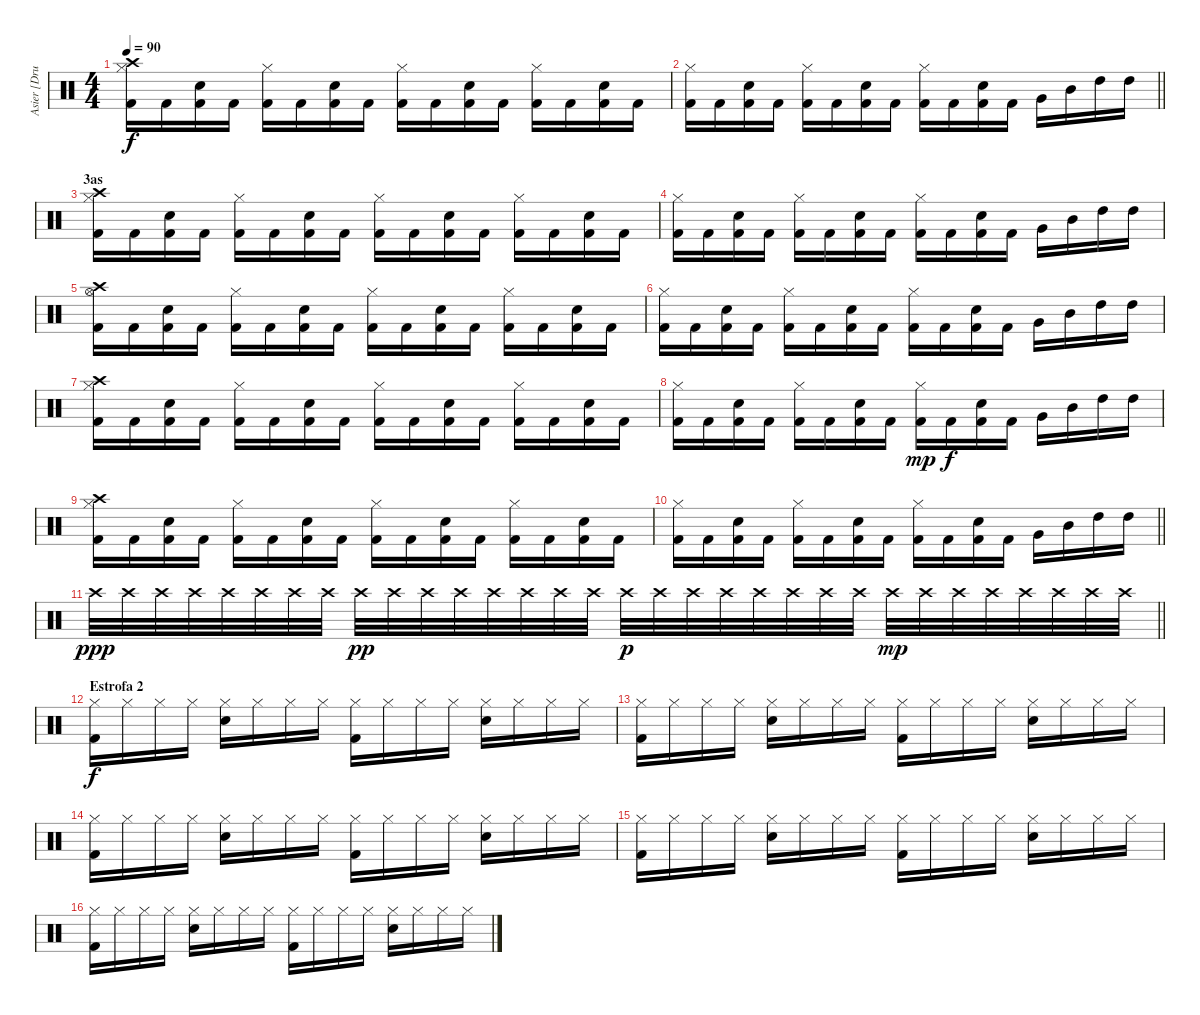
\track ("Asier [Drums]" "Asier [Dru") {instrument percussion}
\staff {score}
\articulation defaults
\ts (4 4)
\tempo 90
\clef neutral
\ks c
("Crash high (hit)" "Hi-Hat (closed)" "Kick (hit) 2").16{dy f} "Kick (hit) 2".16 ("Snare (hit) 2" "Kick (hit) 2").16 "Kick (hit) 2".16 ("Hi-Hat (closed)" "Kick (hit) 2").16 "Kick (hit) 2".16 ("Snare (hit) 2" "Kick (hit) 2").16 "Kick (hit) 2".16 ("Hi-Hat (closed)" "Kick (hit) 2").16 "Kick (hit) 2".16 ("Snare (hit) 2" "Kick (hit) 2").16 "Kick (hit) 2".16 ("Hi-Hat (closed)" "Kick (hit) 2").16 "Kick (hit) 2".16 ("Snare (hit) 2" "Kick (hit) 2").16 "Kick (hit) 2".16 |
\barLineRight lightlight
("Hi-Hat (closed)" "Kick (hit) 2").16 "Kick (hit) 2".16 ("Snare (hit) 2" "Kick (hit) 2").16 "Kick (hit) 2".16 ("Hi-Hat (closed)" "Kick (hit) 2").16 "Kick (hit) 2".16 ("Snare (hit) 2" "Kick (hit) 2").16 "Kick (hit) 2".16 ("Hi-Hat (closed)" "Kick (hit) 2").16 "Kick (hit) 2".16 ("Snare (hit) 2" "Kick (hit) 2").16 "Kick (hit) 2".16 "Very Low Tom (hit)".16 "Mid Tom (hit)".16 "High Tom (hit)".16 "High Tom (hit)".16 |
\section ("" "3as")
("Crash high (hit)" "Hi-Hat (closed)" "Kick (hit) 2").16 "Kick (hit) 2".16 ("Snare (hit) 2" "Kick (hit) 2").16 "Kick (hit) 2".16 ("Hi-Hat (closed)" "Kick (hit) 2").16 "Kick (hit) 2".16 ("Snare (hit) 2" "Kick (hit) 2").16 "Kick (hit) 2".16 ("Hi-Hat (closed)" "Kick (hit) 2").16 "Kick (hit) 2".16 ("Snare (hit) 2" "Kick (hit) 2").16 "Kick (hit) 2".16 ("Hi-Hat (closed)" "Kick (hit) 2").16 "Kick (hit) 2".16 ("Snare (hit) 2" "Kick (hit) 2").16 "Kick (hit) 2".16 |
("Hi-Hat (closed)" "Kick (hit) 2").16 "Kick (hit) 2".16 ("Snare (hit) 2" "Kick (hit) 2").16 "Kick (hit) 2".16 ("Hi-Hat (closed)" "Kick (hit) 2").16 "Kick (hit) 2".16 ("Snare (hit) 2" "Kick (hit) 2").16 "Kick (hit) 2".16 ("Hi-Hat (closed)" "Kick (hit) 2").16 "Kick (hit) 2".16 ("Snare (hit) 2" "Kick (hit) 2").16 "Kick (hit) 2".16 "Very Low Tom (hit)".16 "Mid Tom (hit)".16 "High Tom (hit)".16 "High Tom (hit)".16 |
("Crash high (hit)" "Hi-Hat (open)" "Kick (hit) 2").16 "Kick (hit) 2".16 ("Snare (hit) 2" "Kick (hit) 2").16 "Kick (hit) 2".16 ("Hi-Hat (closed)" "Kick (hit) 2").16 "Kick (hit) 2".16 ("Snare (hit) 2" "Kick (hit) 2").16 "Kick (hit) 2".16 ("Hi-Hat (closed)" "Kick (hit) 2").16 "Kick (hit) 2".16 ("Snare (hit) 2" "Kick (hit) 2").16 "Kick (hit) 2".16 ("Hi-Hat (closed)" "Kick (hit) 2").16 "Kick (hit) 2".16 ("Snare (hit) 2" "Kick (hit) 2").16 "Kick (hit) 2".16 |
("Hi-Hat (closed)" "Kick (hit) 2").16 "Kick (hit) 2".16 ("Snare (hit) 2" "Kick (hit) 2").16 "Kick (hit) 2".16 ("Hi-Hat (closed)" "Kick (hit) 2").16 "Kick (hit) 2".16 ("Snare (hit) 2" "Kick (hit) 2").16 "Kick (hit) 2".16 ("Hi-Hat (closed)" "Kick (hit) 2").16 "Kick (hit) 2".16 ("Snare (hit) 2" "Kick (hit) 2").16 "Kick (hit) 2".16 "Very Low Tom (hit)".16 "Mid Tom (hit)".16 "High Tom (hit)".16 "High Tom (hit)".16 |
("Crash high (hit)" "Hi-Hat (closed)" "Kick (hit) 2").16 "Kick (hit) 2".16 ("Snare (hit) 2" "Kick (hit) 2").16 "Kick (hit) 2".16 ("Hi-Hat (closed)" "Kick (hit) 2").16 "Kick (hit) 2".16 ("Snare (hit) 2" "Kick (hit) 2").16 "Kick (hit) 2".16 ("Hi-Hat (closed)" "Kick (hit) 2").16 "Kick (hit) 2".16 ("Snare (hit) 2" "Kick (hit) 2").16 "Kick (hit) 2".16 ("Hi-Hat (closed)" "Kick (hit) 2").16 "Kick (hit) 2".16 ("Snare (hit) 2" "Kick (hit) 2").16 "Kick (hit) 2".16 |
("Hi-Hat (closed)" "Kick (hit) 2").16 "Kick (hit) 2".16 ("Snare (hit) 2" "Kick (hit) 2").16 "Kick (hit) 2".16 ("Hi-Hat (closed)" "Kick (hit) 2").16 "Kick (hit) 2".16 ("Snare (hit) 2" "Kick (hit) 2").16 "Kick (hit) 2".16 ("Hi-Hat (closed)" "Kick (hit) 2").16{dy mp} "Kick (hit) 2".16{dy f} ("Snare (hit) 2" "Kick (hit) 2").16 "Kick (hit) 2".16 "Very Low Tom (hit)".16 "Mid Tom (hit)".16 "High Tom (hit)".16 "High Tom (hit)".16 |
("Crash high (hit)" "Hi-Hat (closed)" "Kick (hit) 2").16 "Kick (hit) 2".16 ("Snare (hit) 2" "Kick (hit) 2").16 "Kick (hit) 2".16 ("Hi-Hat (closed)" "Kick (hit) 2").16 "Kick (hit) 2".16 ("Snare (hit) 2" "Kick (hit) 2").16 "Kick (hit) 2".16 ("Hi-Hat (closed)" "Kick (hit) 2").16 "Kick (hit) 2".16 ("Snare (hit) 2" "Kick (hit) 2").16 "Kick (hit) 2".16 ("Hi-Hat (closed)" "Kick (hit) 2").16 "Kick (hit) 2".16 ("Snare (hit) 2" "Kick (hit) 2").16 "Kick (hit) 2".16 |
\barLineRight lightlight
("Hi-Hat (closed)" "Kick (hit) 2").16 "Kick (hit) 2".16 ("Snare (hit) 2" "Kick (hit) 2").16 "Kick (hit) 2".16 ("Hi-Hat (closed)" "Kick (hit) 2").16 "Kick (hit) 2".16 ("Snare (hit) 2" "Kick (hit) 2").16 "Kick (hit) 2".16 ("Hi-Hat (closed)" "Kick (hit) 2").16 "Kick (hit) 2".16 ("Snare (hit) 2" "Kick (hit) 2").16 "Kick (hit) 2".16 "Very Low Tom (hit)".16 "Mid Tom (hit)".16 "High Tom (hit)".16 "High Tom (hit)".16 |
\barLineRight lightlight "Crash high (hit)".32{dy ppp} "Crash high (hit)".32 "Crash high (hit)".32 "Crash high (hit)".32 "Crash high (hit)".32 "Crash high (hit)".32 "Crash high (hit)".32 "Crash high (hit)".32 "Crash high (hit)".32{dy pp} "Crash high (hit)".32 "Crash high (hit)".32 "Crash high (hit)".32 "Crash high (hit)".32 "Crash high (hit)".32 "Crash high (hit)".32 "Crash high (hit)".32 "Crash high (hit)".32{dy p} "Crash high (hit)".32 "Crash high (hit)".32 "Crash high (hit)".32 "Crash high (hit)".32 "Crash high (hit)".32 "Crash high (hit)".32 "Crash high (hit)".32 "Crash high (hit)".32{dy mp} "Crash high (hit)".32 "Crash high (hit)".32 "Crash high (hit)".32 "Crash high (hit)".32 "Crash high (hit)".32 "Crash high (hit)".32 "Crash high (hit)".32
|
\section ("" "Estrofa 2")
("Hi-Hat (closed)" "Kick (hit) 2").16{dy f} "Hi-Hat (closed)".16 "Hi-Hat (closed)".16 "Hi-Hat (closed)".16 ("Hi-Hat (closed)" "Snare (hit) 2").16 "Hi-Hat (closed)".16 "Hi-Hat (closed)".16 "Hi-Hat (closed)".16 ("Hi-Hat (closed)" "Kick (hit) 2").16 "Hi-Hat (closed)".16 "Hi-Hat (closed)".16 "Hi-Hat (closed)".16 ("Hi-Hat (closed)" "Snare (hit) 2").16 "Hi-Hat (closed)".16 "Hi-Hat (closed)".16 "Hi-Hat (closed)".16 |
("Hi-Hat (closed)" "Kick (hit) 2").16 "Hi-Hat (closed)".16 "Hi-Hat (closed)".16 "Hi-Hat (closed)".16 ("Hi-Hat (closed)" "Snare (hit) 2").16 "Hi-Hat (closed)".16 "Hi-Hat (closed)".16 "Hi-Hat (closed)".16 ("Hi-Hat (closed)" "Kick (hit) 2").16 "Hi-Hat (closed)".16 "Hi-Hat (closed)".16 "Hi-Hat (closed)".16 ("Hi-Hat (closed)" "Snare (hit) 2").16 "Hi-Hat (closed)".16 "Hi-Hat (closed)".16 "Hi-Hat (closed)".16 |
("Hi-Hat (closed)" "Kick (hit) 2").16 "Hi-Hat (closed)".16 "Hi-Hat (closed)".16 "Hi-Hat (closed)".16 ("Hi-Hat (closed)" "Snare (hit) 2").16 "Hi-Hat (closed)".16 "Hi-Hat (closed)".16 "Hi-Hat (closed)".16 ("Hi-Hat (closed)" "Kick (hit) 2").16 "Hi-Hat (closed)".16 "Hi-Hat (closed)".16 "Hi-Hat (closed)".16 ("Hi-Hat (closed)" "Snare (hit) 2").16 "Hi-Hat (closed)".16 "Hi-Hat (closed)".16 "Hi-Hat (closed)".16 |
("Hi-Hat (closed)" "Kick (hit) 2").16 "Hi-Hat (closed)".16 "Hi-Hat (closed)".16 "Hi-Hat (closed)".16 ("Hi-Hat (closed)" "Snare (hit) 2").16 "Hi-Hat (closed)".16 "Hi-Hat (closed)".16 "Hi-Hat (closed)".16 ("Hi-Hat (closed)" "Kick (hit) 2").16 "Hi-Hat (closed)".16 "Hi-Hat (closed)".16 "Hi-Hat (closed)".16 ("Hi-Hat (closed)" "Snare (hit) 2").16 "Hi-Hat (closed)".16 "Hi-Hat (closed)".16 "Hi-Hat (closed)".16 |
("Hi-Hat (closed)" "Kick (hit) 2").16 "Hi-Hat (closed)".16 "Hi-Hat (closed)".16 "Hi-Hat (closed)".16 ("Hi-Hat (closed)" "Snare (hit) 2").16 "Hi-Hat (closed)".16 "Hi-Hat (closed)".16 "Hi-Hat (closed)".16 ("Hi-Hat (closed)" "Kick (hit) 2").16 "Hi-Hat (closed)".16 "Hi-Hat (closed)".16 "Hi-Hat (closed)".16 ("Hi-Hat (closed)" "Snare (hit) 2").16 "Hi-Hat (closed)".16 "Hi-Hat (closed)".16 "Hi-Hat (closed)".16
